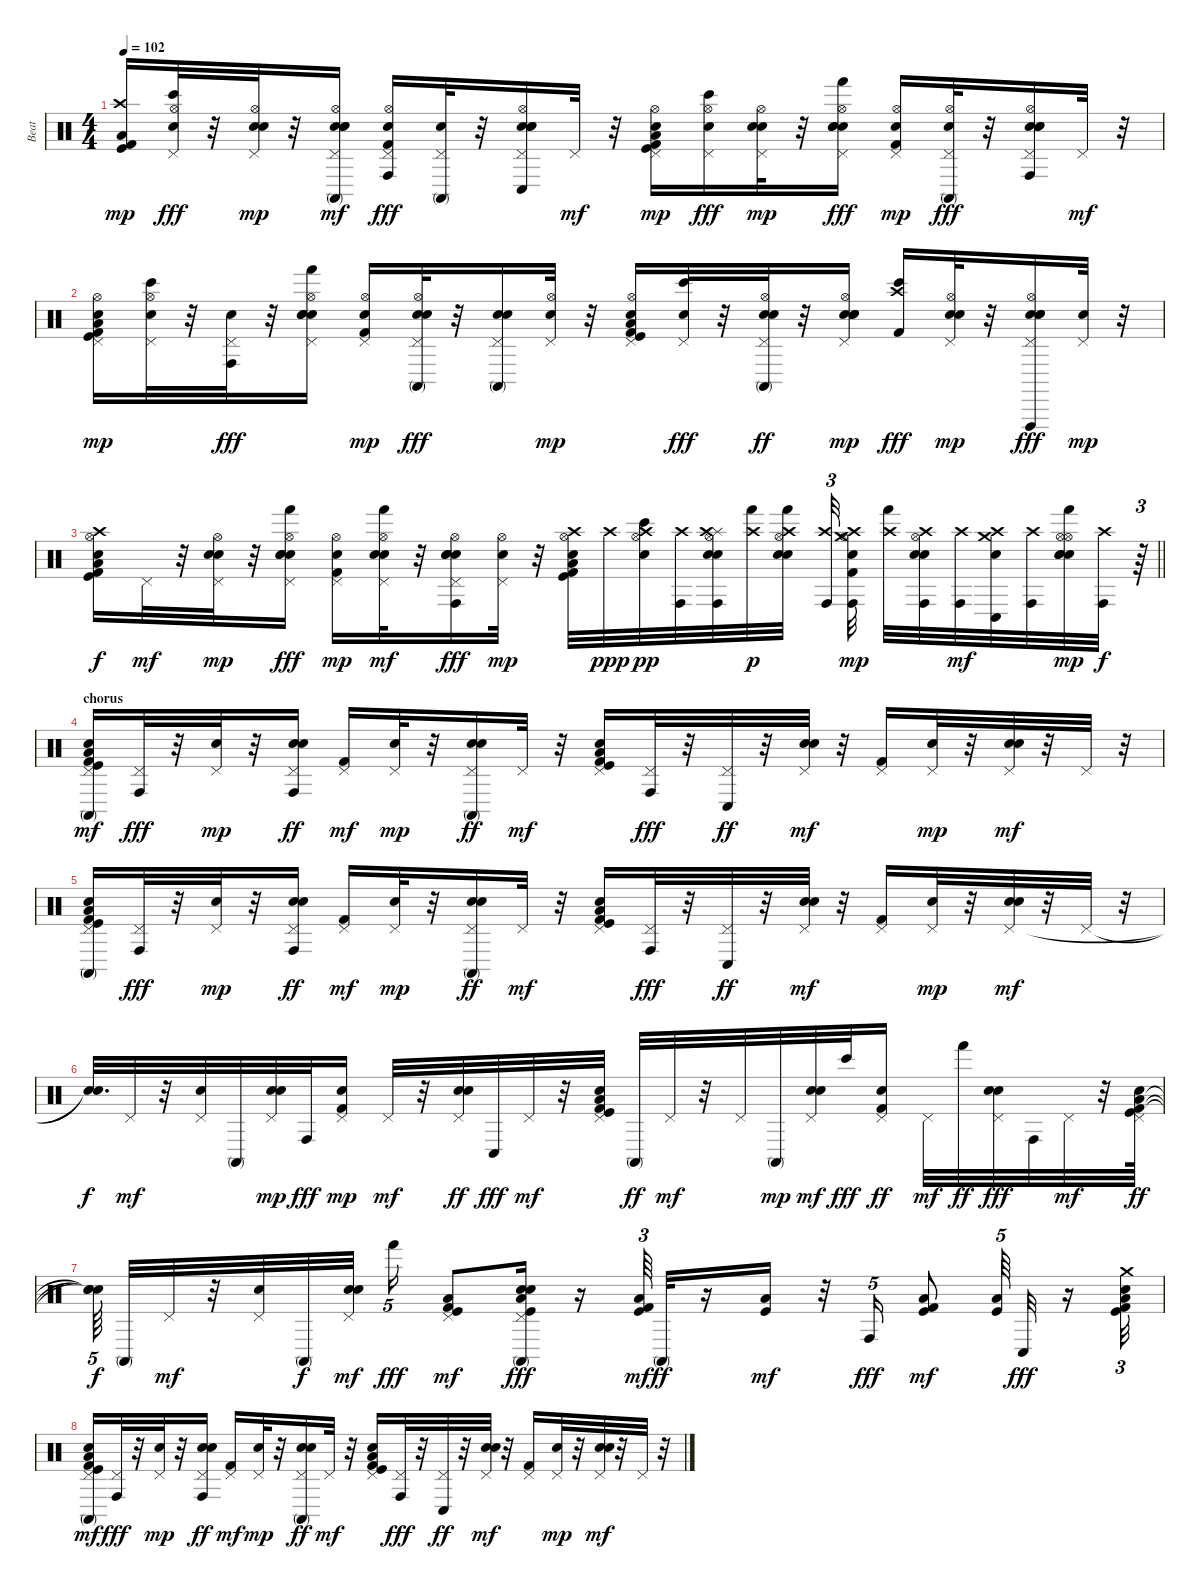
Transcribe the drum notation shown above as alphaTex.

\track ("Beat" "Beat") {instrument percussion}
\staff {score}
\articulation defaults
\ts (4 4)
\tempo 102
\clef neutral
\ks c
("Kick (hit)" "Low Tom (hit)" "Kick (hit) 2" "Crash high (hit)").16{dy mp} ("Pedal Hi-Hat (hit)" "Hi-Hat (open)" "Metronome (bell)" "Bongo High (hit)").32{dy fff} r.32 ("Pedal Hi-Hat (hit)" "Hand Clap (hit)" "Hi-Hat (open)" "Metronome (bell)").32{dy mp} r.32 ("Electric Snare (hit)" "Pedal Hi-Hat (hit)" "Hand Clap (hit)" "Hi-Hat (open)" "Metronome (bell)" "Conga high (mute)").16{dy mf} ("Kick (hit) 2" "Pedal Hi-Hat (hit)" "Hi-Hat (open)" "Metronome (bell)" "Conga high (hit)").16{dy fff} ("Pedal Hi-Hat (hit)" "Hand Clap (hit)" "Conga high (mute)").32 r.32 ("Electric Snare (hit)" "Pedal Hi-Hat (hit)" "Hand Clap (hit)" "Hi-Hat (open)" "Metronome (bell)" "Conga low (hit)").16 "Pedal Hi-Hat (hit)".32{dy mf} r.32 ("Low Tom (hit)" "Kick (hit)" "Kick (hit) 2" "Pedal Hi-Hat (hit)" "Hi-Hat (open)" "Metronome (bell)").16{dy mp} ("Pedal Hi-Hat (hit)" "Hi-Hat (open)" "Metronome (bell)" "Bongo High (hit)").16{dy fff} ("Pedal Hi-Hat (hit)" "Hand Clap (hit)" "Hi-Hat (open)" "Metronome (bell)").32{dy mp} r.32 ("Electric Snare (hit)" "Pedal Hi-Hat (hit)" "Hand Clap (hit)" "Hi-Hat (open)" "Metronome (bell)" "Hand (hit)").16{dy fff} ("Kick (hit) 2" "Pedal Hi-Hat (hit)" "Hi-Hat (open)" "Metronome (bell)").16{dy mp} ("Pedal Hi-Hat (hit)" "Hi-Hat (open)" "Metronome (bell)" "Conga high (mute)").32{dy fff} r.32 ("Electric Snare (hit)" "Pedal Hi-Hat (hit)" "Hand Clap (hit)" "Hi-Hat (open)" "Metronome (bell)" "Conga high (hit)").16 "Pedal Hi-Hat (hit)".32{dy mf} r.32 |
("Kick (hit)" "Low Tom (hit)" "Kick (hit) 2" "Pedal Hi-Hat (hit)" "Hi-Hat (open)" "Metronome (bell)").16{dy mp} ("Pedal Hi-Hat (hit)" "Hi-Hat (open)" "Metronome (bell)" "Bongo High (hit)").32 r.32 ("Pedal Hi-Hat (hit)" "Hand Clap (hit)" "Conga high (hit)").32{dy fff} r.32 ("Electric Snare (hit)" "Pedal Hi-Hat (hit)" "Hand Clap (hit)" "Hi-Hat (open)" "Metronome (bell)" "Hand (hit)").16 ("Kick (hit) 2" "Pedal Hi-Hat (hit)" "Hi-Hat (open)" "Metronome (bell)").16{dy mp} ("Pedal Hi-Hat (hit)" "Hand Clap (hit)" "Hi-Hat (open)" "Metronome (bell)" "Conga high (mute)").32{dy fff} r.32 ("Electric Snare (hit)" "Pedal Hi-Hat (hit)" "Hand Clap (hit)" "Conga high (mute)").16 ("Pedal Hi-Hat (hit)" "Hi-Hat (open)" "Metronome (bell)").32{dy mp} r.32 ("Low Tom (hit)" "Kick (hit)" "Kick (hit) 2" "Pedal Hi-Hat (hit)" "Hi-Hat (open)" "Metronome (bell)").16 ("Pedal Hi-Hat (hit)" "Hand Clap (hit)" "Bongo High (hit)").32{dy fff} r.32 ("Pedal Hi-Hat (hit)" "Hand Clap (hit)" "Hi-Hat (open)" "Metronome (bell)" "Conga high (mute)").32{dy ff} r.32 ("Electric Snare (hit)" "Pedal Hi-Hat (hit)" "Hand Clap (hit)" "Hi-Hat (open)" "Metronome (bell)").16{dy mp} ("Kick (hit) 2" "Crash high (hit)" "Bongo High (hit)").16{dy fff} ("Pedal Hi-Hat (hit)" "Hand Clap (hit)" "Hi-Hat (open)" "Metronome (bell)").32{dy mp} r.32 ("Electric Snare (hit)" "Pedal Hi-Hat (hit)" "Hand Clap (hit)" "Hi-Hat (open)" "Metronome (bell)" "Vibraslap (hit)").16{dy fff} ("Pedal Hi-Hat (hit)" "Hand Clap (hit)").32{dy mp} r.32 |
\barLineRight lightlight
("Low Tom (hit)" "Kick (hit)" "Kick (hit) 2" "Crash high (hit)" "Hi-Hat (open)" "Metronome (bell)").16{dy f} "Pedal Hi-Hat (hit)".32{dy mf} r.32 ("Pedal Hi-Hat (hit)" "Hand Clap (hit)" "Hi-Hat (open)" "Metronome (bell)").32{dy mp} r.32 ("Electric Snare (hit)" "Pedal Hi-Hat (hit)" "Hand Clap (hit)" "Hi-Hat (open)" "Metronome (bell)" "Hand (hit)").16{dy fff} ("Kick (hit) 2" "Pedal Hi-Hat (hit)" "Hi-Hat (open)" "Metronome (bell)").16{dy mp} ("Pedal Hi-Hat (hit)" "Hand Clap (hit)" "Hi-Hat (open)" "Metronome (bell)" "Hand (hit)").32{dy mf} r.32 ("Electric Snare (hit)" "Pedal Hi-Hat (hit)" "Hand Clap (hit)" "Hi-Hat (open)" "Metronome (bell)" "Conga high (hit)").16{dy fff} ("Pedal Hi-Hat (hit)" "Hi-Hat (open)" "Metronome (bell)").32{dy mp} r.32 ("Kick (hit)" "Low Tom (hit)" "Kick (hit) 2" "Crash high (hit)" "Hi-Hat (open)" "Metronome (bell)").32{volume 15} "Crash high (hit)".32{dy ppp} ("Hi-Hat (open)" "Metronome (bell)" "Bongo High (hit)" "Crash high (hit)").32{dy pp} ("Conga high (hit)" "Crash high (hit)").32 ("Splash (hit)" "Hand Clap (hit)" "Hi-Hat (open)" "Metronome (bell)" "Conga high (hit)" "Crash high (hit)").32 ("Hand (hit)" "Crash high (hit)").32{dy p} ("Hand Clap (hit)" "Hi-Hat (open)" "Metronome (bell)" "Hand (hit)" "Crash high (hit)").32{beam splitsecondary} ("Conga high (hit)" "Crash high (hit)").32{tu (3 2)} ("Kick (hit) 2" "Crash medium (hit)" "Hi-Hat (open)" "Metronome (bell)" "Conga high (hit)" "Crash high (hit)").32{dy mp} ("Hand (hit)" "Crash high (hit)").32 ("Hand Clap (hit)" "Hi-Hat (open)" "Metronome (bell)" "Conga high (hit)" "Crash high (hit)").32 ("Conga high (hit)" "Crash high (hit)").32{dy mf} ("Crash medium (hit)" "Hand Clap (hit)" "Conga low (hit)" "Crash high (hit)").32 ("Conga high (hit)" "Crash high (hit)").32 ("Hand Clap (hit)" "Hi-Hat (open)" "Metronome (bell)" "Hi-Hat (open)" "Metronome (bell)" "Hand (hit)").32{dy mp} ("Conga high (hit)" "Crash high (hit)").32{dy f} r.64{tu (3 2)} |
\section ("" "chorus")
("Low Tom (hit)" "Kick (hit)" "Kick (hit) 2" "Pedal Hi-Hat (hit)" "Hand Clap (hit)" "Conga high (mute)").16{dy mf} ("Pedal Hi-Hat (hit)" "Conga high (hit)").32{dy fff volume 10} r.32 ("Pedal Hi-Hat (hit)" "Hand Clap (hit)").32{dy mp} r.32 ("Electric Snare (hit)" "Pedal Hi-Hat (hit)" "Hand Clap (hit)" "Conga high (hit)").16{dy ff} ("Kick (hit) 2" "Pedal Hi-Hat (hit)").16{dy mf} ("Pedal Hi-Hat (hit)" "Hand Clap (hit)").32{dy mp} r.32 ("Electric Snare (hit)" "Pedal Hi-Hat (hit)" "Hand Clap (hit)" "Conga high (mute)").16{dy ff} "Pedal Hi-Hat (hit)".32{dy mf} r.32 ("Low Tom (hit)" "Kick (hit)" "Kick (hit) 2" "Pedal Hi-Hat (hit)" "Hand Clap (hit)").16 ("Pedal Hi-Hat (hit)" "Conga high (hit)").32{dy fff} r.32 ("Pedal Hi-Hat (hit)" "Conga low (hit)").32{dy ff} r.32 ("Electric Snare (hit)" "Pedal Hi-Hat (hit)" "Hand Clap (hit)").32{dy mf} r.32 ("Kick (hit) 2" "Pedal Hi-Hat (hit)").16 ("Pedal Hi-Hat (hit)" "Hand Clap (hit)").32{dy mp} r.32 ("Electric Snare (hit)" "Pedal Hi-Hat (hit)" "Hand Clap (hit)").32{dy mf} r.32 "Pedal Hi-Hat (hit)".32 r.32 |
("Low Tom (hit)" "Kick (hit)" "Kick (hit) 2" "Pedal Hi-Hat (hit)" "Hand Clap (hit)" "Conga high (mute)").16 ("Pedal Hi-Hat (hit)" "Conga high (hit)").32{dy fff} r.32 ("Pedal Hi-Hat (hit)" "Hand Clap (hit)").32{dy mp} r.32 ("Electric Snare (hit)" "Pedal Hi-Hat (hit)" "Hand Clap (hit)" "Conga high (hit)").16{dy ff} ("Kick (hit) 2" "Pedal Hi-Hat (hit)").16{dy mf} ("Pedal Hi-Hat (hit)" "Hand Clap (hit)").32{dy mp} r.32 ("Electric Snare (hit)" "Pedal Hi-Hat (hit)" "Hand Clap (hit)" "Conga high (mute)").16{dy ff} "Pedal Hi-Hat (hit)".32{dy mf} r.32 ("Low Tom (hit)" "Kick (hit)" "Kick (hit) 2" "Pedal Hi-Hat (hit)" "Hand Clap (hit)").16 ("Pedal Hi-Hat (hit)" "Conga high (hit)").32{dy fff} r.32 ("Pedal Hi-Hat (hit)" "Conga low (hit)").32{dy ff} r.32 ("Electric Snare (hit)" "Pedal Hi-Hat (hit)" "Hand Clap (hit)").32{dy mf} r.32 ("Kick (hit) 2" "Pedal Hi-Hat (hit)").16 ("Pedal Hi-Hat (hit)" "Hand Clap (hit)").32{dy mp} r.32 ("Electric Snare (hit)" "Pedal Hi-Hat (hit)" "Hand Clap (hit)").32{dy mf} r.32 "Pedal Hi-Hat (hit)".32 r.32 |
("Snare (hit)"{t} "Snare (hit)"{t}).32{d dy f} "Pedal Hi-Hat (hit)".32{dy mf} r.32 ("Pedal Hi-Hat (hit)" "Hand Clap (hit)").32 "Conga high (mute)".32 ("Electric Snare (hit)" "Pedal Hi-Hat (hit)" "Hand Clap (hit)").32{dy mp} "Conga high (hit)".32{dy fff} ("Kick (hit) 2" "Pedal Hi-Hat (hit)" "Hand Clap (hit)").16{dy mp} "Pedal Hi-Hat (hit)".32{dy mf} r.32 ("Electric Snare (hit)" "Pedal Hi-Hat (hit)" "Hand Clap (hit)").32{dy ff} "Conga low (hit)".32{dy fff} "Pedal Hi-Hat (hit)".32{dy mf} r.32 ("Low Tom (hit)" "Kick (hit)" "Kick (hit) 2" "Pedal Hi-Hat (hit)" "Hand Clap (hit)").32 "Conga high (mute)".32{dy ff} "Pedal Hi-Hat (hit)".32{dy mf} r.32 "Pedal Hi-Hat (hit)".32 "Conga high (mute)".32{dy mp} ("Electric Snare (hit)" "Pedal Hi-Hat (hit)" "Hand Clap (hit)").32{dy mf} "Bongo High (hit)".32{dy fff} ("Kick (hit) 2" "Pedal Hi-Hat (hit)" "Hand Clap (hit)").16{dy ff} "Pedal Hi-Hat (hit)".32{dy mf} "Hand (hit)".32{dy ff} ("Electric Snare (hit)" "Pedal Hi-Hat (hit)" "Hand Clap (hit)").32{dy fff} "Conga high (hit)".32 "Pedal Hi-Hat (hit)".32{dy mf} r.32 ("Low Tom (hit)" "Kick (hit)" "Kick (hit) 2" "Pedal Hi-Hat (hit)" "Hand Clap (hit)").64{dy ff} |
("Snare (hit)"{t} "Snare (hit)"{t} "Snare (hit)"{t}).64{tu (5 4) dy f beam splitsecondary} "Conga high (mute)".32 "Pedal Hi-Hat (hit)".32{dy mf} r.32 ("Pedal Hi-Hat (hit)" "Hand Clap (hit)").32 "Conga high (mute)".32{dy f} ("Electric Snare (hit)" "Pedal Hi-Hat (hit)" "Hand Clap (hit)").32{dy mf beam splitsecondary} "Hand (hit)".16{tu (5 4) dy fff} ("Kick (hit)" "Low Tom (hit)" "Kick (hit) 2" "Pedal Hi-Hat (hit)").8{dy mf} ("Kick (hit)" "Low Tom (hit)" "Electric Snare (hit)" "Pedal Hi-Hat (hit)" "Hand Clap (hit)" "Conga high (mute)").16{dy fff} r.16 ("Low Tom (hit)" "Kick (hit)" "Kick (hit) 2").64{tu (3 2) dy mf} "Conga high (mute)".32{dy ff} r.16 ("Low Tom (hit)" "Kick (hit)").16{dy mf} r.32 "Conga high (hit)".16{tu (5 4) dy fff} ("Low Tom (hit)" "Kick (hit)" "Kick (hit) 2").8{dy mf} ("Low Tom (hit)" "Kick (hit)").64{tu (5 4)} "Conga low (hit)".32{dy fff} r.16 ("Low Tom (hit)" "Kick (hit)" "Kick (hit) 2" "Crash medium (hit)" "Hand Clap (hit)").32{tu (3 2)} |
("Low Tom (hit)" "Kick (hit)" "Kick (hit) 2" "Pedal Hi-Hat (hit)" "Hand Clap (hit)" "Conga high (mute)").16{dy mf} ("Pedal Hi-Hat (hit)" "Conga high (hit)").32{dy fff} r.32 ("Pedal Hi-Hat (hit)" "Hand Clap (hit)").32{dy mp} r.32 ("Electric Snare (hit)" "Pedal Hi-Hat (hit)" "Hand Clap (hit)" "Conga high (hit)").16{dy ff} ("Kick (hit) 2" "Pedal Hi-Hat (hit)").16{dy mf} ("Pedal Hi-Hat (hit)" "Hand Clap (hit)").32{dy mp} r.32 ("Electric Snare (hit)" "Pedal Hi-Hat (hit)" "Hand Clap (hit)" "Conga high (mute)").16{dy ff} "Pedal Hi-Hat (hit)".32{dy mf} r.32 ("Low Tom (hit)" "Kick (hit)" "Kick (hit) 2" "Pedal Hi-Hat (hit)" "Hand Clap (hit)").16 ("Pedal Hi-Hat (hit)" "Conga high (hit)").32{dy fff} r.32 ("Pedal Hi-Hat (hit)" "Conga low (hit)").32{dy ff} r.32 ("Electric Snare (hit)" "Pedal Hi-Hat (hit)" "Hand Clap (hit)").32{dy mf} r.32 ("Kick (hit) 2" "Pedal Hi-Hat (hit)").16 ("Pedal Hi-Hat (hit)" "Hand Clap (hit)").32{dy mp} r.32 ("Electric Snare (hit)" "Pedal Hi-Hat (hit)" "Hand Clap (hit)").32{dy mf} r.32 "Pedal Hi-Hat (hit)".32 r.32
